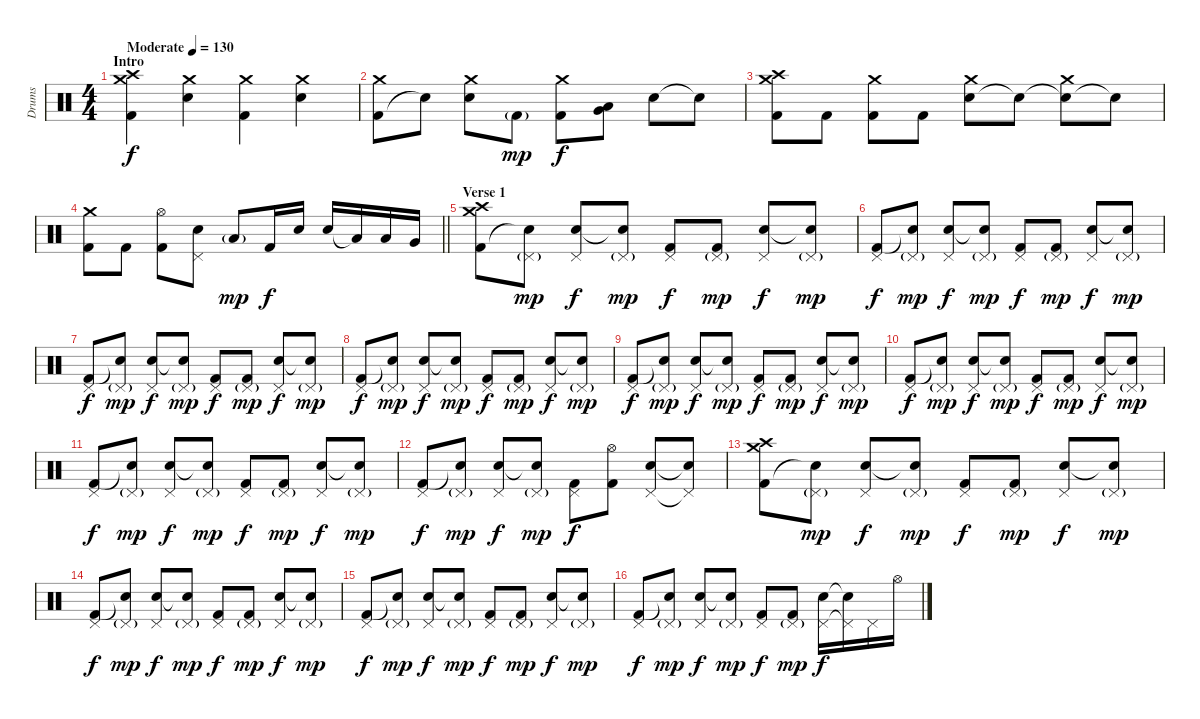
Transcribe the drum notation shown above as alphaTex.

\track ("Drums" "Drums") {instrument percussion}
\staff {score}
\articulation defaults
\ts (4 4)
\section ("" "Intro")
\tempo (130 "Moderate")
\clef neutral
\ks c
("Kick (hit) 2" "Crash medium (hit)" "Crash high (hit)").4{dy f} ("Electric Snare (hit)" "Crash medium (hit)").4 ("Kick (hit) 2" "Crash medium (hit)").4 ("Electric Snare (hit)" "Crash medium (hit)").4 |
("Kick (hit) 2" "Crash medium (hit)").8 "Snare (hit)"{t}.8 ("Electric Snare (hit)" "Crash medium (hit)").8 "Kick (hit) 2"{g}.8{dy mp} ("Kick (hit) 2" "Crash medium (hit)").8{dy f} ("Low Tom (hit)" "Very Low Tom (hit)").8 "Electric Snare (hit)".8 "Snare (hit)"{t}.8 |
("Kick (hit) 2" "Crash medium (hit)" "Crash high (hit)").8 "Kick (hit) 2".8 ("Kick (hit) 2" "Crash medium (hit)").8 "Kick (hit) 2".8 ("Electric Snare (hit)" "Crash medium (hit)").8 "Snare (hit)"{t}.8 ("Snare (hit)"{t} "Crash medium (hit)").8 "Snare (hit)"{t}.8 |
\barLineRight lightlight
("Kick (hit) 2" "Crash medium (hit)").8 "Kick (hit) 2".8 ("Kick (hit) 2" "Hi-Hat (open)").8 ("Electric Snare (hit)" "Pedal Hi-Hat (hit)").8 "Low Tom (hit)"{g}.8{dy mp} "Kick (hit) 2".16{dy f} "Electric Snare (hit)".16 "Electric Snare (hit)".16 "Low Tom (hit)"{t}.16 "Low Tom (hit)".16 "Very Low Tom (hit)".16 |
\section ("" "Verse 1")
("Kick (hit) 2" "Crash medium (hit)" "Crash high (hit)").8 ("Snare (hit)"{t} "Pedal Hi-Hat (hit)"{g}).8{dy mp} ("Electric Snare (hit)" "Pedal Hi-Hat (hit)").8{dy f} ("Snare (hit)"{t} "Pedal Hi-Hat (hit)"{g}).8{dy mp} ("Kick (hit) 2" "Pedal Hi-Hat (hit)").8{dy f} ("Kick (hit) 2" "Pedal Hi-Hat (hit)"{g}).8{dy mp} ("Electric Snare (hit)" "Pedal Hi-Hat (hit)").8{dy f} ("Snare (hit)"{t} "Pedal Hi-Hat (hit)"{g}).8{dy mp} |
("Kick (hit) 2" "Pedal Hi-Hat (hit)").8{dy f} ("Snare (hit)"{t} "Pedal Hi-Hat (hit)"{g}).8{dy mp} ("Electric Snare (hit)" "Pedal Hi-Hat (hit)").8{dy f} ("Snare (hit)"{t} "Pedal Hi-Hat (hit)"{g}).8{dy mp} ("Kick (hit) 2" "Pedal Hi-Hat (hit)").8{dy f} ("Kick (hit) 2" "Pedal Hi-Hat (hit)"{g}).8{dy mp} ("Electric Snare (hit)" "Pedal Hi-Hat (hit)").8{dy f} ("Snare (hit)"{t} "Pedal Hi-Hat (hit)"{g}).8{dy mp} |
("Kick (hit) 2" "Pedal Hi-Hat (hit)").8{dy f} ("Snare (hit)"{t} "Pedal Hi-Hat (hit)"{g}).8{dy mp} ("Electric Snare (hit)" "Pedal Hi-Hat (hit)").8{dy f} ("Snare (hit)"{t} "Pedal Hi-Hat (hit)"{g}).8{dy mp} ("Kick (hit) 2" "Pedal Hi-Hat (hit)").8{dy f} ("Kick (hit) 2" "Pedal Hi-Hat (hit)"{g}).8{dy mp} ("Electric Snare (hit)" "Pedal Hi-Hat (hit)").8{dy f} ("Snare (hit)"{t} "Pedal Hi-Hat (hit)"{g}).8{dy mp} |
("Kick (hit) 2" "Pedal Hi-Hat (hit)").8{dy f} ("Snare (hit)"{t} "Pedal Hi-Hat (hit)"{g}).8{dy mp} ("Electric Snare (hit)" "Pedal Hi-Hat (hit)").8{dy f} ("Snare (hit)"{t} "Pedal Hi-Hat (hit)"{g}).8{dy mp} ("Kick (hit) 2" "Pedal Hi-Hat (hit)").8{dy f} ("Kick (hit) 2" "Pedal Hi-Hat (hit)"{g}).8{dy mp} ("Electric Snare (hit)" "Pedal Hi-Hat (hit)").8{dy f} ("Snare (hit)"{t} "Pedal Hi-Hat (hit)"{g}).8{dy mp} |
("Kick (hit) 2" "Pedal Hi-Hat (hit)").8{dy f} ("Snare (hit)"{t} "Pedal Hi-Hat (hit)"{g}).8{dy mp} ("Electric Snare (hit)" "Pedal Hi-Hat (hit)").8{dy f} ("Snare (hit)"{t} "Pedal Hi-Hat (hit)"{g}).8{dy mp} ("Kick (hit) 2" "Pedal Hi-Hat (hit)").8{dy f} ("Kick (hit) 2" "Pedal Hi-Hat (hit)"{g}).8{dy mp} ("Electric Snare (hit)" "Pedal Hi-Hat (hit)").8{dy f} ("Snare (hit)"{t} "Pedal Hi-Hat (hit)"{g}).8{dy mp} |
("Kick (hit) 2" "Pedal Hi-Hat (hit)").8{dy f} ("Snare (hit)"{t} "Pedal Hi-Hat (hit)"{g}).8{dy mp} ("Electric Snare (hit)" "Pedal Hi-Hat (hit)").8{dy f} ("Snare (hit)"{t} "Pedal Hi-Hat (hit)"{g}).8{dy mp} ("Kick (hit) 2" "Pedal Hi-Hat (hit)").8{dy f} ("Kick (hit) 2" "Pedal Hi-Hat (hit)"{g}).8{dy mp} ("Electric Snare (hit)" "Pedal Hi-Hat (hit)").8{dy f} ("Snare (hit)"{t} "Pedal Hi-Hat (hit)"{g}).8{dy mp} |
("Kick (hit) 2" "Pedal Hi-Hat (hit)").8{dy f} ("Snare (hit)"{t} "Pedal Hi-Hat (hit)"{g}).8{dy mp} ("Electric Snare (hit)" "Pedal Hi-Hat (hit)").8{dy f} ("Snare (hit)"{t} "Pedal Hi-Hat (hit)"{g}).8{dy mp} ("Kick (hit) 2" "Pedal Hi-Hat (hit)").8{dy f} ("Kick (hit) 2" "Pedal Hi-Hat (hit)"{g}).8{dy mp} ("Electric Snare (hit)" "Pedal Hi-Hat (hit)").8{dy f} ("Snare (hit)"{t} "Pedal Hi-Hat (hit)"{g}).8{dy mp} |
("Kick (hit) 2" "Pedal Hi-Hat (hit)").8{dy f} ("Snare (hit)"{t} "Pedal Hi-Hat (hit)"{g}).8{dy mp} ("Electric Snare (hit)" "Pedal Hi-Hat (hit)").8{dy f} ("Snare (hit)"{t} "Pedal Hi-Hat (hit)"{g}).8{dy mp} ("Kick (hit) 2" "Pedal Hi-Hat (hit)").8{dy f} ("Kick (hit) 2" "Hi-Hat (open)").8 ("Electric Snare (hit)" "Pedal Hi-Hat (hit)").8 ("Snare (hit)"{t} "Pedal Hi-Hat (hit)"{t}).8 |
("Kick (hit) 2" "Crash medium (hit)" "Crash high (hit)").8 ("Snare (hit)"{t} "Pedal Hi-Hat (hit)"{g}).8{dy mp} ("Electric Snare (hit)" "Pedal Hi-Hat (hit)").8{dy f} ("Snare (hit)"{t} "Pedal Hi-Hat (hit)"{g}).8{dy mp} ("Kick (hit) 2" "Pedal Hi-Hat (hit)").8{dy f} ("Kick (hit) 2" "Pedal Hi-Hat (hit)"{g}).8{dy mp} ("Electric Snare (hit)" "Pedal Hi-Hat (hit)").8{dy f} ("Snare (hit)"{t} "Pedal Hi-Hat (hit)"{g}).8{dy mp} |
("Kick (hit) 2" "Pedal Hi-Hat (hit)").8{dy f} ("Snare (hit)"{t} "Pedal Hi-Hat (hit)"{g}).8{dy mp} ("Electric Snare (hit)" "Pedal Hi-Hat (hit)").8{dy f} ("Snare (hit)"{t} "Pedal Hi-Hat (hit)"{g}).8{dy mp} ("Kick (hit) 2" "Pedal Hi-Hat (hit)").8{dy f} ("Kick (hit) 2" "Pedal Hi-Hat (hit)"{g}).8{dy mp} ("Electric Snare (hit)" "Pedal Hi-Hat (hit)").8{dy f} ("Snare (hit)"{t} "Pedal Hi-Hat (hit)"{g}).8{dy mp} |
("Kick (hit) 2" "Pedal Hi-Hat (hit)").8{dy f} ("Snare (hit)"{t} "Pedal Hi-Hat (hit)"{g}).8{dy mp} ("Electric Snare (hit)" "Pedal Hi-Hat (hit)").8{dy f} ("Snare (hit)"{t} "Pedal Hi-Hat (hit)"{g}).8{dy mp} ("Kick (hit) 2" "Pedal Hi-Hat (hit)").8{dy f} ("Kick (hit) 2" "Pedal Hi-Hat (hit)"{g}).8{dy mp} ("Electric Snare (hit)" "Pedal Hi-Hat (hit)").8{dy f} ("Snare (hit)"{t} "Pedal Hi-Hat (hit)"{g}).8{dy mp} |
("Kick (hit) 2" "Pedal Hi-Hat (hit)").8{dy f} ("Snare (hit)"{t} "Pedal Hi-Hat (hit)"{g}).8{dy mp} ("Electric Snare (hit)" "Pedal Hi-Hat (hit)").8{dy f} ("Snare (hit)"{t} "Pedal Hi-Hat (hit)"{g}).8{dy mp} ("Kick (hit) 2" "Pedal Hi-Hat (hit)").8{dy f} ("Kick (hit) 2" "Pedal Hi-Hat (hit)"{g}).8{dy mp} ("Electric Snare (hit)" "Pedal Hi-Hat (hit)").16{dy f} ("Snare (hit)"{t} "Pedal Hi-Hat (hit)"{t}).16 "Pedal Hi-Hat (hit)".16 "Hi-Hat (open)".16
